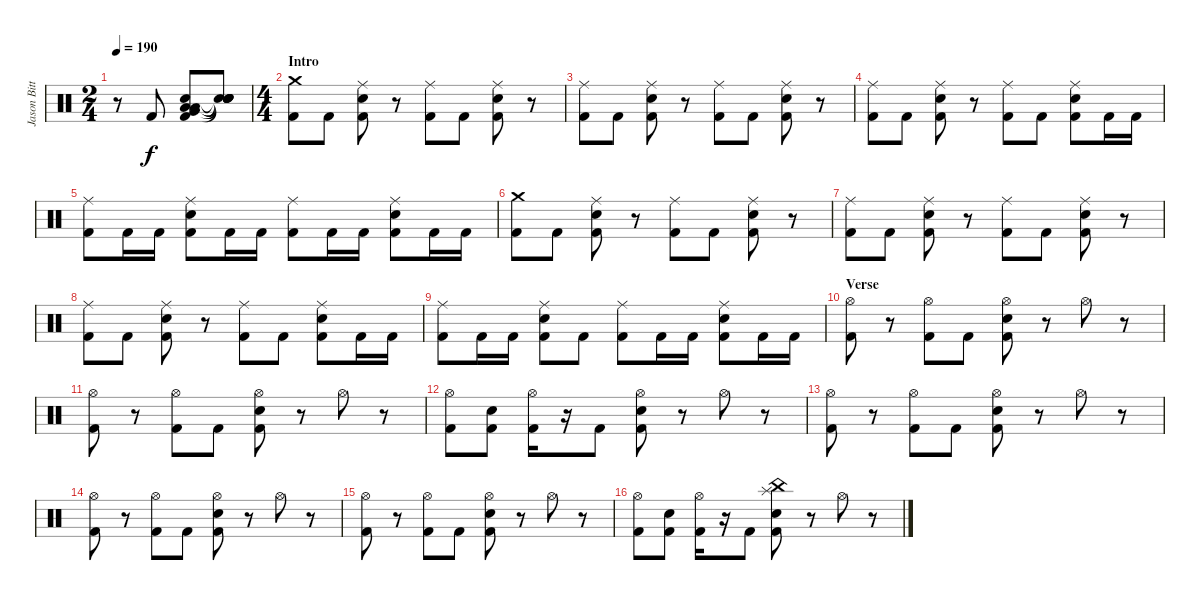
\track ("Jason Bittner" "Jason Bitt") {instrument percussion}
\staff {score}
\articulation defaults
\ts (2 4)
\tempo 190
\clef neutral
\ks c
r.8{dy f} "Kick (hit) 2".8 ("Low Floor Tom (hit)" "Low Floor Tom (hit)" "Snare (hit) 2" "Very Low Tom (hit)" "Kick (hit) 2").8 ("Snare (hit)"{t} "Snare (hit)"{t} "Snare (hit)"{t} "Snare (hit)"{t} "Snare (hit)"{t}).8 |
\ts (4 4)
\section ("" "Intro")
("Crash medium (hit)" "Kick (hit) 2").8 "Kick (hit) 2".8 ("Ride (middle)" "Snare (hit) 2" "Kick (hit) 2").8 r.8 ("Ride (middle)" "Kick (hit) 2").8 "Kick (hit) 2".8 ("Ride (middle)" "Snare (hit) 2" "Kick (hit) 2").8 r.8 |
("Ride (middle)" "Kick (hit) 2").8 "Kick (hit) 2".8 ("Ride (middle)" "Snare (hit) 2" "Kick (hit) 2").8 r.8 ("Ride (middle)" "Kick (hit) 2").8 "Kick (hit) 2".8 ("Ride (middle)" "Snare (hit) 2" "Kick (hit) 2").8 r.8 |
("Ride (middle)" "Kick (hit) 2").8 "Kick (hit) 2".8 ("Ride (middle)" "Snare (hit) 2" "Kick (hit) 2").8 r.8 ("Ride (middle)" "Kick (hit) 2").8 "Kick (hit) 2".8 ("Ride (middle)" "Snare (hit) 2" "Kick (hit) 2").8 "Kick (hit) 2".16 "Kick (hit) 2".16 |
("Ride (middle)" "Kick (hit) 2").8 "Kick (hit) 2".16 "Kick (hit) 2".16 ("Ride (middle)" "Snare (hit) 2" "Kick (hit) 2").8 "Kick (hit) 2".16 "Kick (hit) 2".16 ("Ride (middle)" "Kick (hit) 2").8 "Kick (hit) 2".16 "Kick (hit) 2".16 ("Ride (middle)" "Snare (hit) 2" "Kick (hit) 2").8 "Kick (hit) 2".16 "Kick (hit) 2".16 |
("Crash medium (hit)" "Kick (hit) 2").8 "Kick (hit) 2".8 ("Ride (middle)" "Snare (hit) 2" "Kick (hit) 2").8 r.8 ("Ride (middle)" "Kick (hit) 2").8 "Kick (hit) 2".8 ("Ride (middle)" "Snare (hit) 2" "Kick (hit) 2").8 r.8 |
("Ride (middle)" "Kick (hit) 2").8 "Kick (hit) 2".8 ("Ride (middle)" "Snare (hit) 2" "Kick (hit) 2").8 r.8 ("Ride (middle)" "Kick (hit) 2").8 "Kick (hit) 2".8 ("Ride (middle)" "Snare (hit) 2" "Kick (hit) 2").8 r.8 |
("Ride (middle)" "Kick (hit) 2").8 "Kick (hit) 2".8 ("Ride (middle)" "Snare (hit) 2" "Kick (hit) 2").8 r.8 ("Ride (middle)" "Kick (hit) 2").8 "Kick (hit) 2".8 ("Ride (middle)" "Snare (hit) 2" "Kick (hit) 2").8 "Kick (hit) 2".16 "Kick (hit) 2".16 |
("Ride (middle)" "Kick (hit) 2").8 "Kick (hit) 2".16 "Kick (hit) 2".16 ("Ride (middle)" "Snare (hit) 2" "Kick (hit) 2").8 "Kick (hit) 2".8 ("Ride (middle)" "Kick (hit) 2").8 "Kick (hit) 2".16 "Kick (hit) 2".16 ("Ride (middle)" "Snare (hit) 2" "Kick (hit) 2").8 "Kick (hit) 2".16 "Kick (hit) 2".16 |
\section ("" "Verse")
("Hi-Hat (open)" "Kick (hit) 2").8 r.8 ("Hi-Hat (open)" "Kick (hit) 2").8 "Kick (hit) 2".8 ("Hi-Hat (open)" "Snare (hit) 2" "Kick (hit) 2").8 r.8 "Hi-Hat (open)".8 r.8 |
("Hi-Hat (open)" "Kick (hit) 2").8 r.8 ("Hi-Hat (open)" "Kick (hit) 2").8 "Kick (hit) 2".8 ("Hi-Hat (open)" "Snare (hit) 2" "Kick (hit) 2").8 r.8 "Hi-Hat (open)".8 r.8 |
("Hi-Hat (open)" "Kick (hit) 2").8 ("Snare (hit) 2" "Kick (hit) 2").8 ("Hi-Hat (open)" "Kick (hit) 2").16 r.16 "Kick (hit) 2".8 ("Hi-Hat (open)" "Snare (hit) 2" "Kick (hit) 2").8 r.8 "Hi-Hat (open)".8 r.8 |
("Hi-Hat (open)" "Kick (hit) 2").8 r.8 ("Hi-Hat (open)" "Kick (hit) 2").8 "Kick (hit) 2".8 ("Hi-Hat (open)" "Snare (hit) 2" "Kick (hit) 2").8 r.8 "Hi-Hat (open)".8 r.8 |
("Hi-Hat (open)" "Kick (hit) 2").8 r.8 ("Hi-Hat (open)" "Kick (hit) 2").8 "Kick (hit) 2".8 ("Hi-Hat (open)" "Snare (hit) 2" "Kick (hit) 2").8 r.8 "Hi-Hat (open)".8 r.8 |
("Hi-Hat (open)" "Kick (hit) 2").8 r.8 ("Hi-Hat (open)" "Kick (hit) 2").8 "Kick (hit) 2".8 ("Hi-Hat (open)" "Snare (hit) 2" "Kick (hit) 2").8 r.8 "Hi-Hat (open)".8 r.8 |
("Hi-Hat (open)" "Kick (hit) 2").8 ("Snare (hit) 2" "Kick (hit) 2").8 ("Hi-Hat (open)" "Kick (hit) 2").16 r.16 "Kick (hit) 2".8 ("Splash (hit)" "China (hit)" "Snare (hit) 2" "Kick (hit) 2").8 r.8 "Hi-Hat (open)".8 r.8
